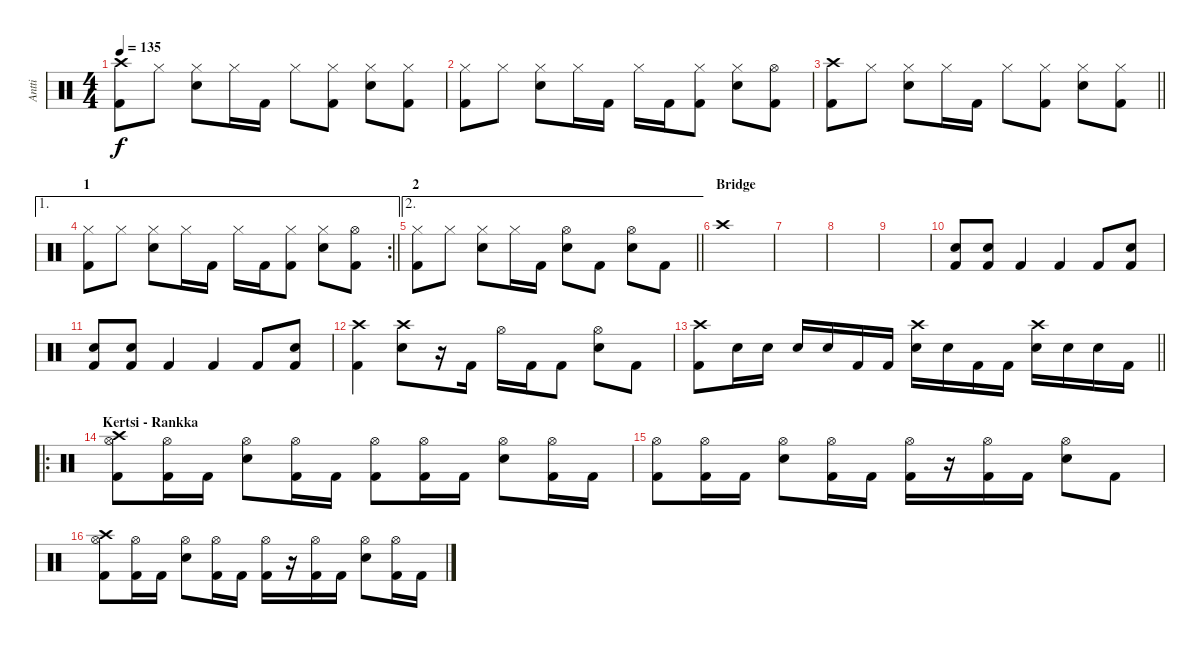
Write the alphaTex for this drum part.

\track ("Antti" "Antti") {instrument percussion}
\staff {score}
\articulation defaults
\ts (4 4)
\tempo 135
\clef neutral
\ks c
("Crash high (hit)" "Kick (hit) 2").8{dy f} "Hi-Hat (closed)".8 ("Hi-Hat (closed)" "Snare (hit) 2").8 "Hi-Hat (closed)".16 "Kick (hit) 2".16 "Hi-Hat (closed)".8 ("Hi-Hat (closed)" "Kick (hit) 2").8 ("Hi-Hat (closed)" "Snare (hit) 2").8 ("Hi-Hat (closed)" "Kick (hit) 2").8 |
("Hi-Hat (closed)" "Kick (hit) 2").8 "Hi-Hat (closed)".8 ("Hi-Hat (closed)" "Snare (hit) 2").8 "Hi-Hat (closed)".16 "Kick (hit) 2".16 "Hi-Hat (closed)".16 "Kick (hit) 2".16 ("Hi-Hat (closed)" "Kick (hit) 2").8 ("Hi-Hat (closed)" "Snare (hit) 2").8 ("Hi-Hat (open)" "Kick (hit) 2").8 |
\barLineRight lightlight
("Crash high (hit)" "Kick (hit) 2").8 "Hi-Hat (closed)".8 ("Hi-Hat (closed)" "Snare (hit) 2").8 "Hi-Hat (closed)".16 "Kick (hit) 2".16 "Hi-Hat (closed)".8 ("Hi-Hat (closed)" "Kick (hit) 2").8 ("Hi-Hat (closed)" "Snare (hit) 2").8 ("Hi-Hat (closed)" "Kick (hit) 2").8 |
\ae 1
\rc 2
\section ("" "1")
\barLineRight lightlight
("Hi-Hat (closed)" "Kick (hit) 2").8 "Hi-Hat (closed)".8 ("Hi-Hat (closed)" "Snare (hit) 2").8 "Hi-Hat (closed)".16 "Kick (hit) 2".16 "Hi-Hat (closed)".16 "Kick (hit) 2".16 ("Hi-Hat (closed)" "Kick (hit) 2").8 ("Hi-Hat (closed)" "Snare (hit) 2").8 ("Hi-Hat (open)" "Kick (hit) 2").8 |
\ae 2
\section ("" "2")
\barLineRight lightlight
("Hi-Hat (closed)" "Kick (hit) 2").8 "Hi-Hat (closed)".8 ("Hi-Hat (closed)" "Snare (hit) 2").8 "Hi-Hat (closed)".16 "Kick (hit) 2".16 ("Hi-Hat (open)" "Snare (hit) 2").8 "Kick (hit) 2".8 ("Hi-Hat (open)" "Snare (hit) 2").8 "Kick (hit) 2".8 |
\section ("" "Bridge")
"Crash high (hit)".1 |
|
|
|
("Snare (hit) 2" "Kick (hit) 2").8 ("Snare (hit) 2" "Kick (hit) 2").8 "Kick (hit) 2".4 "Kick (hit) 2".4 "Kick (hit) 2".8 ("Snare (hit) 2" "Kick (hit) 2").8 |
("Snare (hit) 2" "Kick (hit) 2").8 ("Snare (hit) 2" "Kick (hit) 2").8 "Kick (hit) 2".4 "Kick (hit) 2".4 "Kick (hit) 2".8 ("Snare (hit) 2" "Kick (hit) 2").8 |
("Crash high (hit)" "Kick (hit) 2").4 ("Crash high (hit)" "Snare (hit) 2").8 r.16 "Kick (hit) 2".16 "Hi-Hat (open)".16 "Kick (hit) 2".16 "Kick (hit) 2".8 ("Hi-Hat (open)" "Snare (hit) 2").8 "Kick (hit) 2".8 |
\barLineRight lightlight
("Crash high (hit)" "Kick (hit) 2").8 "Snare (hit) 2".16 "Snare (hit) 2".16 "Snare (hit) 2".16 "Snare (hit) 2".16 "Kick (hit) 2".16 "Kick (hit) 2".16 ("Crash high (hit)" "Snare (hit) 2").16 "Snare (hit) 2".16 "Kick (hit) 2".16 "Kick (hit) 2".16 ("Crash high (hit)" "Snare (hit) 2").16 "Snare (hit) 2".16 "Snare (hit) 2".16 "Kick (hit) 2".16 |
\ro
\section ("" "Kertsi - Rankka")
("Crash high (hit)" "Hi-Hat (open)" "Kick (hit) 2").8 ("Hi-Hat (open)" "Kick (hit) 2").16 "Kick (hit) 2".16 ("Hi-Hat (open)" "Electric Snare (hit)").8 ("Hi-Hat (open)" "Kick (hit) 2").16 "Kick (hit) 2".16 ("Hi-Hat (open)" "Kick (hit) 2").8 ("Hi-Hat (open)" "Kick (hit) 2").16 "Kick (hit) 2".16 ("Hi-Hat (open)" "Electric Snare (hit)").8 ("Hi-Hat (open)" "Kick (hit) 2").16 "Kick (hit) 2".16 |
("Hi-Hat (open)" "Kick (hit) 2").8 ("Hi-Hat (open)" "Kick (hit) 2").16 "Kick (hit) 2".16 ("Hi-Hat (open)" "Electric Snare (hit)").8 ("Hi-Hat (open)" "Kick (hit) 2").16 "Kick (hit) 2".16 ("Hi-Hat (open)" "Kick (hit) 2").16 r.16 ("Hi-Hat (open)" "Kick (hit) 2").16 "Kick (hit) 2".16 ("Hi-Hat (open)" "Electric Snare (hit)").8 "Kick (hit) 2".8 |
("Crash high (hit)" "Hi-Hat (open)" "Kick (hit) 2").8 ("Hi-Hat (open)" "Kick (hit) 2").16 "Kick (hit) 2".16 ("Hi-Hat (open)" "Electric Snare (hit)").8 ("Hi-Hat (open)" "Kick (hit) 2").16 "Kick (hit) 2".16 ("Hi-Hat (open)" "Kick (hit) 2").16 r.16 ("Hi-Hat (open)" "Kick (hit) 2").16 "Kick (hit) 2".16 ("Hi-Hat (open)" "Electric Snare (hit)").8 ("Hi-Hat (open)" "Kick (hit) 2").16 "Kick (hit) 2".16
